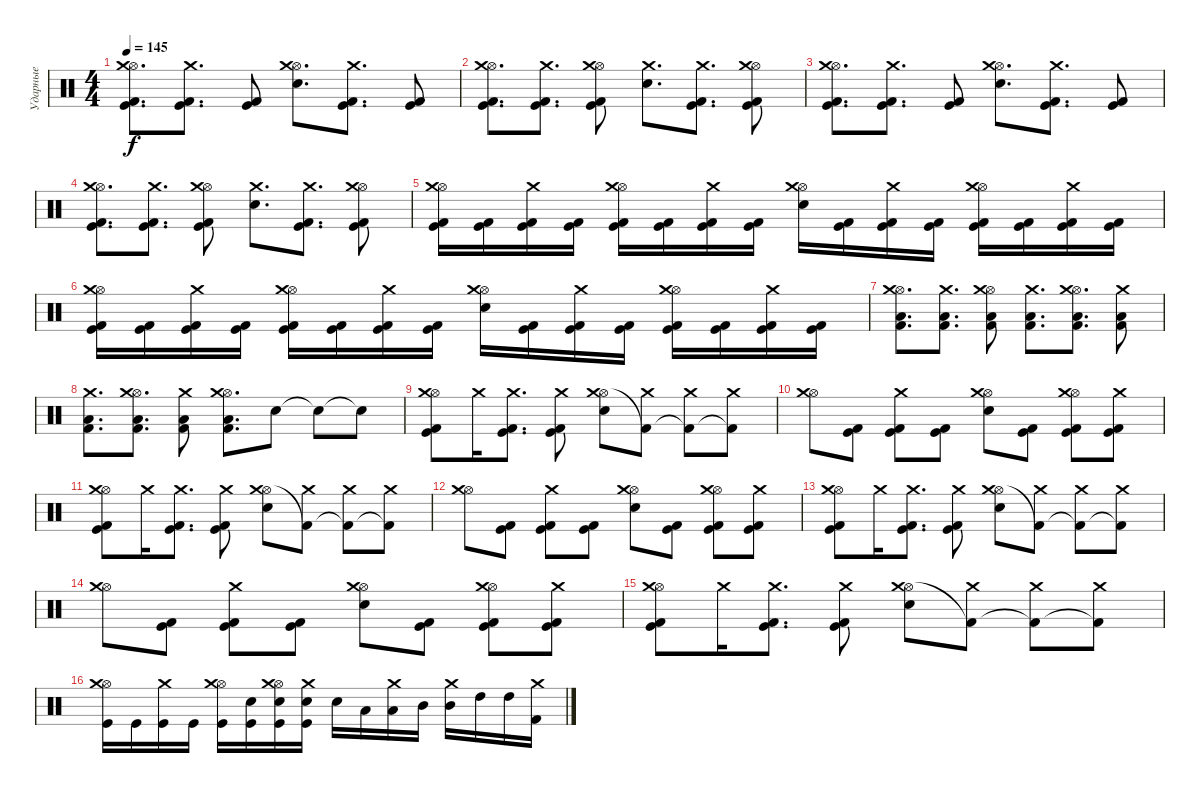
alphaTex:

\track ("Ударные" "Ударные") {instrument percussion}
\staff {score}
\articulation defaults
\ts (4 4)
\tempo 145
\clef neutral
\ks c
("Hi-Hat (open)" "Crash medium (hit)" "Kick (hit) 2" "Kick (hit)").8{d dy f} ("Crash medium (hit)" "Kick (hit) 2" "Kick (hit)").8{d} ("Kick (hit) 2" "Kick (hit)").8 ("Hi-Hat (open)" "Crash medium (hit)" "Electric Snare (hit)").8{d} ("Crash medium (hit)" "Kick (hit) 2" "Kick (hit)").8{d} ("Kick (hit) 2" "Kick (hit)").8 |
("Hi-Hat (open)" "Crash medium (hit)" "Kick (hit) 2" "Kick (hit)").8{d} ("Crash medium (hit)" "Kick (hit) 2" "Kick (hit)").8{d} ("Hi-Hat (open)" "Crash medium (hit)" "Kick (hit) 2" "Kick (hit)").8 ("Crash medium (hit)" "Electric Snare (hit)").8{d} ("Crash medium (hit)" "Kick (hit) 2" "Kick (hit)").8{d} ("Hi-Hat (open)" "Crash medium (hit)" "Kick (hit) 2" "Kick (hit)").8 |
("Hi-Hat (open)" "Crash medium (hit)" "Kick (hit) 2" "Kick (hit)").8{d} ("Crash medium (hit)" "Kick (hit) 2" "Kick (hit)").8{d} ("Kick (hit) 2" "Kick (hit)").8 ("Hi-Hat (open)" "Crash medium (hit)" "Electric Snare (hit)").8{d} ("Crash medium (hit)" "Kick (hit) 2" "Kick (hit)").8{d} ("Kick (hit) 2" "Kick (hit)").8 |
("Hi-Hat (open)" "Crash medium (hit)" "Kick (hit) 2" "Kick (hit)").8{d} ("Crash medium (hit)" "Kick (hit) 2" "Kick (hit)").8{d} ("Hi-Hat (open)" "Crash medium (hit)" "Kick (hit) 2" "Kick (hit)").8 ("Crash medium (hit)" "Electric Snare (hit)").8{d} ("Crash medium (hit)" "Kick (hit) 2" "Kick (hit)").8{d} ("Hi-Hat (open)" "Crash medium (hit)" "Kick (hit) 2" "Kick (hit)").8 |
("Hi-Hat (open)" "Crash medium (hit)" "Kick (hit) 2" "Kick (hit)").16 ("Kick (hit) 2" "Kick (hit)").16 ("Crash medium (hit)" "Kick (hit) 2" "Kick (hit)").16 ("Kick (hit) 2" "Kick (hit)").16 ("Hi-Hat (open)" "Crash medium (hit)" "Kick (hit) 2" "Kick (hit)").16 ("Kick (hit) 2" "Kick (hit)").16 ("Crash medium (hit)" "Kick (hit) 2" "Kick (hit)").16 ("Kick (hit) 2" "Kick (hit)").16 ("Hi-Hat (open)" "Crash medium (hit)" "Electric Snare (hit)").16 ("Kick (hit) 2" "Kick (hit)").16 ("Crash medium (hit)" "Kick (hit) 2" "Kick (hit)").16 ("Kick (hit) 2" "Kick (hit)").16 ("Hi-Hat (open)" "Crash medium (hit)" "Kick (hit) 2" "Kick (hit)").16 ("Kick (hit) 2" "Kick (hit)").16 ("Crash medium (hit)" "Kick (hit) 2" "Kick (hit)").16 ("Kick (hit) 2" "Kick (hit)").16 |
("Hi-Hat (open)" "Crash medium (hit)" "Kick (hit) 2" "Kick (hit)").16 ("Kick (hit) 2" "Kick (hit)").16 ("Crash medium (hit)" "Kick (hit) 2" "Kick (hit)").16 ("Kick (hit) 2" "Kick (hit)").16 ("Hi-Hat (open)" "Crash medium (hit)" "Kick (hit) 2" "Kick (hit)").16 ("Kick (hit) 2" "Kick (hit)").16 ("Crash medium (hit)" "Kick (hit) 2" "Kick (hit)").16 ("Kick (hit) 2" "Kick (hit)").16 ("Hi-Hat (open)" "Crash medium (hit)" "Electric Snare (hit)").16 ("Kick (hit) 2" "Kick (hit)").16 ("Crash medium (hit)" "Kick (hit) 2" "Kick (hit)").16 ("Kick (hit) 2" "Kick (hit)").16 ("Hi-Hat (open)" "Crash medium (hit)" "Kick (hit) 2" "Kick (hit)").16 ("Kick (hit) 2" "Kick (hit)").16 ("Crash medium (hit)" "Kick (hit) 2" "Kick (hit)").16 ("Kick (hit) 2" "Kick (hit)").16 |
("Hi-Hat (open)" "Crash medium (hit)" "Low Tom (hit)" "Kick (hit) 2").8{d} ("Crash medium (hit)" "Low Tom (hit)" "Kick (hit) 2").8{d} ("Hi-Hat (open)" "Crash medium (hit)" "Low Tom (hit)" "Kick (hit) 2").8 ("Crash medium (hit)" "Low Tom (hit)" "Kick (hit) 2").8{d} ("Hi-Hat (open)" "Crash medium (hit)" "Low Tom (hit)" "Kick (hit) 2").8{d} ("Crash medium (hit)" "Low Tom (hit)" "Kick (hit) 2").8 |
("Crash medium (hit)" "Low Tom (hit)" "Kick (hit) 2").8{d} ("Hi-Hat (open)" "Crash medium (hit)" "Low Tom (hit)" "Kick (hit) 2").8{d} ("Crash medium (hit)" "Low Tom (hit)" "Kick (hit) 2").8 ("Hi-Hat (open)" "Crash medium (hit)" "Low Tom (hit)" "Kick (hit) 2").8{d} "Electric Snare (hit)".8 "Snare (hit)"{t}.8 "Snare (hit)"{t}.8 |
("Hi-Hat (open)" "Crash medium (hit)" "Kick (hit) 2" "Kick (hit)").8 "Crash medium (hit)".16 ("Crash medium (hit)" "Kick (hit) 2" "Kick (hit)").8{d} ("Crash medium (hit)" "Kick (hit) 2" "Kick (hit)").8 ("Hi-Hat (open)" "Crash medium (hit)" "Electric Snare (hit)").8 ("Crash medium (hit)" "Kick (hit) 2"{t}).8 ("Crash medium (hit)" "Kick (hit) 2"{t}).8 ("Crash medium (hit)" "Kick (hit) 2"{t}).8 |
("Hi-Hat (open)" "Crash medium (hit)").8 ("Kick (hit) 2" "Kick (hit)").8 ("Crash medium (hit)" "Kick (hit) 2" "Kick (hit)").8 ("Kick (hit) 2" "Kick (hit)").8 ("Hi-Hat (open)" "Crash medium (hit)" "Electric Snare (hit)").8 ("Kick (hit) 2" "Kick (hit)").8 ("Hi-Hat (open)" "Crash medium (hit)" "Kick (hit) 2" "Kick (hit)").8 ("Crash medium (hit)" "Kick (hit) 2" "Kick (hit)").8 |
("Hi-Hat (open)" "Crash medium (hit)" "Kick (hit) 2" "Kick (hit)").8 "Crash medium (hit)".16 ("Crash medium (hit)" "Kick (hit) 2" "Kick (hit)").8{d} ("Crash medium (hit)" "Kick (hit) 2" "Kick (hit)").8 ("Hi-Hat (open)" "Crash medium (hit)" "Electric Snare (hit)").8 ("Crash medium (hit)" "Kick (hit) 2"{t}).8 ("Crash medium (hit)" "Kick (hit) 2"{t}).8 ("Crash medium (hit)" "Kick (hit) 2"{t}).8 |
("Hi-Hat (open)" "Crash medium (hit)").8 ("Kick (hit) 2" "Kick (hit)").8 ("Crash medium (hit)" "Kick (hit) 2" "Kick (hit)").8 ("Kick (hit) 2" "Kick (hit)").8 ("Hi-Hat (open)" "Crash medium (hit)" "Electric Snare (hit)").8 ("Kick (hit) 2" "Kick (hit)").8 ("Hi-Hat (open)" "Crash medium (hit)" "Kick (hit) 2" "Kick (hit)").8 ("Crash medium (hit)" "Kick (hit) 2" "Kick (hit)").8 |
("Hi-Hat (open)" "Crash medium (hit)" "Kick (hit) 2" "Kick (hit)").8 "Crash medium (hit)".16 ("Crash medium (hit)" "Kick (hit) 2" "Kick (hit)").8{d} ("Crash medium (hit)" "Kick (hit) 2" "Kick (hit)").8 ("Hi-Hat (open)" "Crash medium (hit)" "Electric Snare (hit)").8 ("Crash medium (hit)" "Kick (hit) 2"{t}).8 ("Crash medium (hit)" "Kick (hit) 2"{t}).8 ("Crash medium (hit)" "Kick (hit) 2"{t}).8 |
("Hi-Hat (open)" "Crash medium (hit)").8 ("Kick (hit) 2" "Kick (hit)").8 ("Crash medium (hit)" "Kick (hit) 2" "Kick (hit)").8 ("Kick (hit) 2" "Kick (hit)").8 ("Hi-Hat (open)" "Crash medium (hit)" "Electric Snare (hit)").8 ("Kick (hit) 2" "Kick (hit)").8 ("Hi-Hat (open)" "Crash medium (hit)" "Kick (hit) 2" "Kick (hit)").8 ("Crash medium (hit)" "Kick (hit) 2" "Kick (hit)").8 |
("Hi-Hat (open)" "Crash medium (hit)" "Kick (hit) 2" "Kick (hit)").8 "Crash medium (hit)".16 ("Crash medium (hit)" "Kick (hit) 2" "Kick (hit)").8{d} ("Crash medium (hit)" "Kick (hit) 2" "Kick (hit)").8 ("Hi-Hat (open)" "Crash medium (hit)" "Electric Snare (hit)").8 ("Crash medium (hit)" "Kick (hit) 2"{t}).8 ("Crash medium (hit)" "Kick (hit) 2"{t}).8 ("Crash medium (hit)" "Kick (hit) 2"{t}).8 |
("Hi-Hat (open)" "Crash medium (hit)" "Kick (hit)").16 "Kick (hit)".16 ("Crash medium (hit)" "Kick (hit)").16 "Kick (hit)".16 ("Hi-Hat (open)" "Crash medium (hit)" "Kick (hit)").16 ("Electric Snare (hit)" "Kick (hit)").16 ("Hi-Hat (open)" "Crash medium (hit)" "Electric Snare (hit)" "Kick (hit)").16 ("Crash medium (hit)" "Electric Snare (hit)" "Kick (hit)").16 "Electric Snare (hit)".16 "Low Tom (hit)".16 ("Crash medium (hit)" "Low Tom (hit)").16 "Mid Tom (hit)".16 ("Crash medium (hit)" "Mid Tom (hit)").16 "High Tom (hit)".16 "High Tom (hit)".16 ("Crash medium (hit)" "Kick (hit) 2").16
